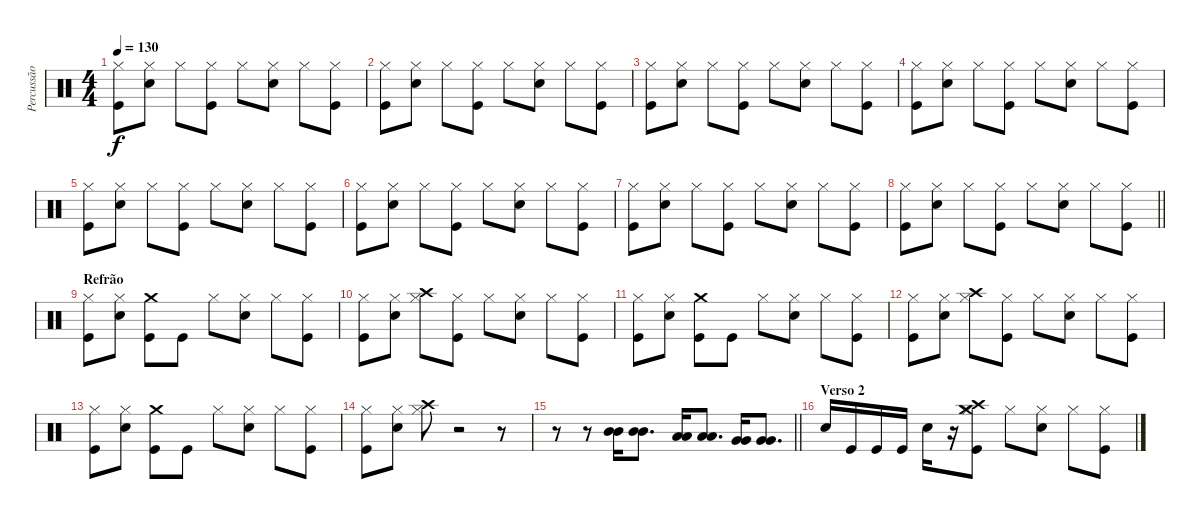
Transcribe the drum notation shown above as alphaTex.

\track ("Percussão" "Percussão") {instrument percussion}
\staff {score}
\articulation defaults
\ts (4 4)
\tempo 130
\clef neutral
\ks c
("Hi-Hat (closed)" "Kick (hit)").8{dy f} ("Hi-Hat (closed)" "Snare (hit) 2").8 "Hi-Hat (closed)".8 ("Hi-Hat (closed)" "Kick (hit)").8 "Hi-Hat (closed)".8 ("Hi-Hat (closed)" "Snare (hit) 2").8 "Hi-Hat (closed)".8 ("Hi-Hat (closed)" "Kick (hit)").8 |
("Hi-Hat (closed)" "Kick (hit)").8 ("Hi-Hat (closed)" "Snare (hit) 2").8 "Hi-Hat (closed)".8 ("Hi-Hat (closed)" "Kick (hit)").8 "Hi-Hat (closed)".8 ("Hi-Hat (closed)" "Snare (hit) 2").8 "Hi-Hat (closed)".8 ("Hi-Hat (closed)" "Kick (hit)").8 |
("Hi-Hat (closed)" "Kick (hit)").8 ("Hi-Hat (closed)" "Snare (hit) 2").8 "Hi-Hat (closed)".8 ("Hi-Hat (closed)" "Kick (hit)").8 "Hi-Hat (closed)".8 ("Hi-Hat (closed)" "Snare (hit) 2").8 "Hi-Hat (closed)".8 ("Hi-Hat (closed)" "Kick (hit)").8 |
("Hi-Hat (closed)" "Kick (hit)").8 ("Hi-Hat (closed)" "Snare (hit) 2").8 "Hi-Hat (closed)".8 ("Hi-Hat (closed)" "Kick (hit)").8 "Hi-Hat (closed)".8 ("Hi-Hat (closed)" "Snare (hit) 2").8 "Hi-Hat (closed)".8 ("Hi-Hat (closed)" "Kick (hit)").8 |
("Hi-Hat (closed)" "Kick (hit)").8 ("Hi-Hat (closed)" "Snare (hit) 2").8 "Hi-Hat (closed)".8 ("Hi-Hat (closed)" "Kick (hit)").8 "Hi-Hat (closed)".8 ("Hi-Hat (closed)" "Snare (hit) 2").8 "Hi-Hat (closed)".8 ("Hi-Hat (closed)" "Kick (hit)").8 |
("Hi-Hat (closed)" "Kick (hit)").8 ("Hi-Hat (closed)" "Snare (hit) 2").8 "Hi-Hat (closed)".8 ("Hi-Hat (closed)" "Kick (hit)").8 "Hi-Hat (closed)".8 ("Hi-Hat (closed)" "Snare (hit) 2").8 "Hi-Hat (closed)".8 ("Hi-Hat (closed)" "Kick (hit)").8 |
("Hi-Hat (closed)" "Kick (hit)").8 ("Hi-Hat (closed)" "Snare (hit) 2").8 "Hi-Hat (closed)".8 ("Hi-Hat (closed)" "Kick (hit)").8 "Hi-Hat (closed)".8 ("Hi-Hat (closed)" "Snare (hit) 2").8 "Hi-Hat (closed)".8 ("Hi-Hat (closed)" "Kick (hit)").8 |
\barLineRight lightlight
("Hi-Hat (closed)" "Kick (hit)").8 ("Hi-Hat (closed)" "Snare (hit) 2").8 "Hi-Hat (closed)".8 ("Hi-Hat (closed)" "Kick (hit)").8 "Hi-Hat (closed)".8 ("Hi-Hat (closed)" "Snare (hit) 2").8 "Hi-Hat (closed)".8 ("Hi-Hat (closed)" "Kick (hit)").8 |
\section ("" "Refrão")
("Hi-Hat (closed)" "Kick (hit)").8 ("Hi-Hat (closed)" "Snare (hit) 2").8 ("Kick (hit)" "Crash medium (hit)").8 "Kick (hit)".8 "Hi-Hat (closed)".8 ("Hi-Hat (closed)" "Snare (hit) 2").8 "Hi-Hat (closed)".8 ("Hi-Hat (closed)" "Kick (hit)").8 |
("Hi-Hat (closed)" "Kick (hit)").8 ("Hi-Hat (closed)" "Snare (hit) 2").8 ("Hi-Hat (closed)" "Crash high (hit)").8 ("Hi-Hat (closed)" "Kick (hit)").8 "Hi-Hat (closed)".8 ("Hi-Hat (closed)" "Snare (hit) 2").8 "Hi-Hat (closed)".8 ("Hi-Hat (closed)" "Kick (hit)").8 |
("Hi-Hat (closed)" "Kick (hit)").8 ("Hi-Hat (closed)" "Snare (hit) 2").8 ("Kick (hit)" "Crash medium (hit)").8 "Kick (hit)".8 "Hi-Hat (closed)".8 ("Hi-Hat (closed)" "Snare (hit) 2").8 "Hi-Hat (closed)".8 ("Hi-Hat (closed)" "Kick (hit)").8 |
("Hi-Hat (closed)" "Kick (hit)").8 ("Hi-Hat (closed)" "Snare (hit) 2").8 ("Hi-Hat (closed)" "Crash high (hit)").8 ("Hi-Hat (closed)" "Kick (hit)").8 "Hi-Hat (closed)".8 ("Hi-Hat (closed)" "Snare (hit) 2").8 "Hi-Hat (closed)".8 ("Hi-Hat (closed)" "Kick (hit)").8 |
("Hi-Hat (closed)" "Kick (hit)").8 ("Hi-Hat (closed)" "Snare (hit) 2").8 ("Kick (hit)" "Crash medium (hit)").8 "Kick (hit)".8 "Hi-Hat (closed)".8 ("Hi-Hat (closed)" "Snare (hit) 2").8 "Hi-Hat (closed)".8 ("Hi-Hat (closed)" "Kick (hit)").8 |
("Hi-Hat (closed)" "Kick (hit)").8 ("Hi-Hat (closed)" "Snare (hit) 2").8 ("Hi-Hat (closed)" "Crash high (hit)").8 r.2 r.8 |
\barLineRight lightlight
r.8 r.8 ("Mid Tom (hit)" "Mid Tom (hit)").16 ("Mid Tom (hit)" "Mid Tom (hit)").8{d} ("Low Tom (hit)" "Low Tom (hit)").16 ("Low Tom (hit)" "Low Tom (hit)").8{d} ("Very Low Tom (hit)" "Very Low Tom (hit)").16 ("Very Low Tom (hit)" "Very Low Tom (hit)").8{d} |
\section ("" "Verso 2")
"Snare (hit) 2".16 "Kick (hit)".16 "Kick (hit)".16 "Kick (hit)".16 "Snare (hit) 2".16 r.16 ("Kick (hit)" "Hi-Hat (closed)" "Crash medium (hit)" "Crash high (hit)").8 "Hi-Hat (closed)".8 ("Hi-Hat (closed)" "Snare (hit) 2").8 "Hi-Hat (closed)".8 ("Hi-Hat (closed)" "Kick (hit)").8
